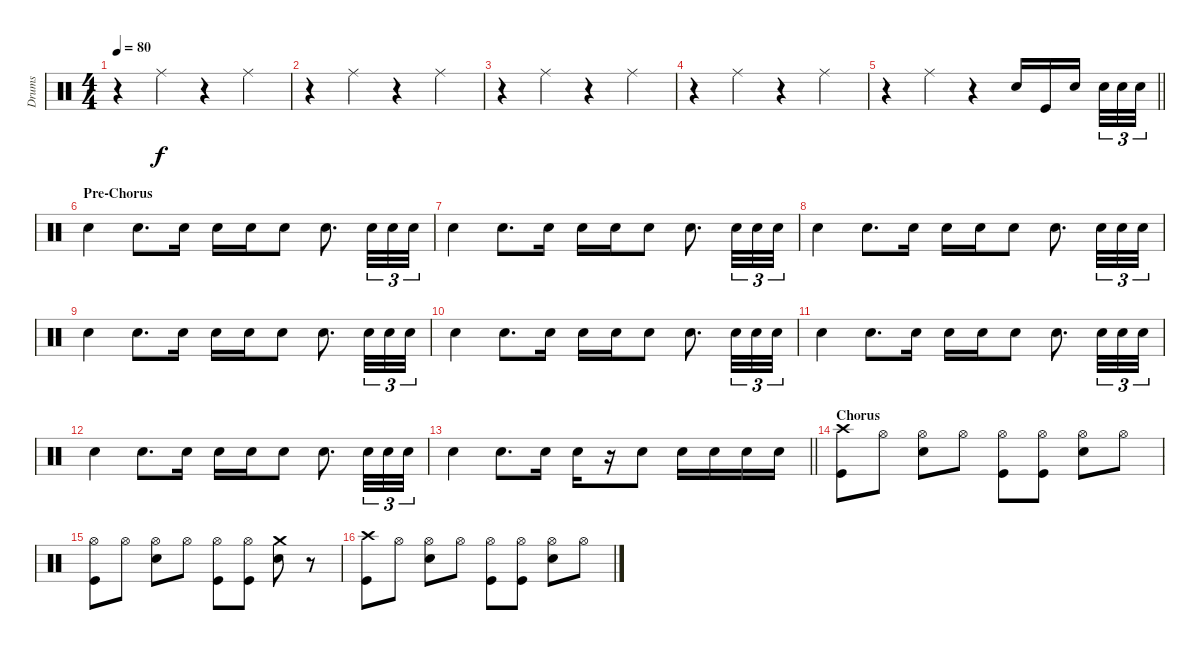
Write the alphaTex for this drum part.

\track ("Drums" "Drums") {instrument percussion}
\staff {score}
\articulation defaults
\ts (4 4)
\tempo 80
\clef neutral
\ks c
r.4{dy f} "Ride (middle)".4 r.4 "Ride (middle)".4 |
r.4 "Ride (middle)".4 r.4 "Ride (middle)".4 |
r.4 "Ride (middle)".4 r.4 "Ride (middle)".4 |
r.4 "Ride (middle)".4 r.4 "Ride (middle)".4 |
\barLineRight lightlight
r.4 "Ride (middle)".4 r.4 "Snare (hit) 2".16 "Kick (hit)".16 "Snare (hit) 2".16 "Snare (hit) 2".32{tu (3 2)} "Snare (hit) 2".32{tu (3 2)} "Snare (hit) 2".32{tu (3 2)} |
\section ("" "Pre-Chorus")
"Snare (hit) 2".4 "Snare (hit) 2".8{d} "Snare (hit) 2".16 "Snare (hit) 2".16 "Snare (hit) 2".16 "Snare (hit) 2".8 "Snare (hit) 2".8{d} "Snare (hit) 2".32{tu (3 2)} "Snare (hit) 2".32{tu (3 2)} "Snare (hit) 2".32{tu (3 2)} |
"Snare (hit) 2".4 "Snare (hit) 2".8{d} "Snare (hit) 2".16 "Snare (hit) 2".16 "Snare (hit) 2".16 "Snare (hit) 2".8 "Snare (hit) 2".8{d} "Snare (hit) 2".32{tu (3 2)} "Snare (hit) 2".32{tu (3 2)} "Snare (hit) 2".32{tu (3 2)} |
"Snare (hit) 2".4 "Snare (hit) 2".8{d} "Snare (hit) 2".16 "Snare (hit) 2".16 "Snare (hit) 2".16 "Snare (hit) 2".8 "Snare (hit) 2".8{d} "Snare (hit) 2".32{tu (3 2)} "Snare (hit) 2".32{tu (3 2)} "Snare (hit) 2".32{tu (3 2)} |
"Snare (hit) 2".4 "Snare (hit) 2".8{d} "Snare (hit) 2".16 "Snare (hit) 2".16 "Snare (hit) 2".16 "Snare (hit) 2".8 "Snare (hit) 2".8{d} "Snare (hit) 2".32{tu (3 2)} "Snare (hit) 2".32{tu (3 2)} "Snare (hit) 2".32{tu (3 2)} |
"Snare (hit) 2".4 "Snare (hit) 2".8{d} "Snare (hit) 2".16 "Snare (hit) 2".16 "Snare (hit) 2".16 "Snare (hit) 2".8 "Snare (hit) 2".8{d} "Snare (hit) 2".32{tu (3 2)} "Snare (hit) 2".32{tu (3 2)} "Snare (hit) 2".32{tu (3 2)} |
"Snare (hit) 2".4 "Snare (hit) 2".8{d} "Snare (hit) 2".16 "Snare (hit) 2".16 "Snare (hit) 2".16 "Snare (hit) 2".8 "Snare (hit) 2".8{d} "Snare (hit) 2".32{tu (3 2)} "Snare (hit) 2".32{tu (3 2)} "Snare (hit) 2".32{tu (3 2)} |
"Snare (hit) 2".4 "Snare (hit) 2".8{d} "Snare (hit) 2".16 "Snare (hit) 2".16 "Snare (hit) 2".16 "Snare (hit) 2".8 "Snare (hit) 2".8{d} "Snare (hit) 2".32{tu (3 2)} "Snare (hit) 2".32{tu (3 2)} "Snare (hit) 2".32{tu (3 2)} |
\barLineRight lightlight "Snare (hit) 2".4 "Snare (hit) 2".8{d} "Snare (hit) 2".16 "Snare (hit) 2".16
r.16 "Snare (hit) 2".8 "Snare (hit) 2".16 "Snare (hit) 2".16 "Snare (hit) 2".16 "Snare (hit) 2".16 |
\section ("" "Chorus")
("Crash high (hit)" "Kick (hit)").8 "Hi-Hat (open)".8 ("Hi-Hat (open)" "Snare (hit) 2").8 "Hi-Hat (open)".8 ("Hi-Hat (open)" "Kick (hit)").8 ("Hi-Hat (open)" "Kick (hit)").8 ("Hi-Hat (open)" "Snare (hit) 2").8 "Hi-Hat (open)".8 |
("Kick (hit)" "Hi-Hat (open)").8 "Hi-Hat (open)".8 ("Hi-Hat (open)" "Snare (hit) 2").8 "Hi-Hat (open)".8 ("Hi-Hat (open)" "Kick (hit)").8 ("Hi-Hat (open)" "Kick (hit)").8 ("Snare (hit) 2" "Crash medium (hit)").8 r.8 |
("Crash high (hit)" "Kick (hit)").8 "Hi-Hat (open)".8 ("Hi-Hat (open)" "Snare (hit) 2").8 "Hi-Hat (open)".8 ("Hi-Hat (open)" "Kick (hit)").8 ("Hi-Hat (open)" "Kick (hit)").8 ("Hi-Hat (open)" "Snare (hit) 2").8 "Hi-Hat (open)".8
